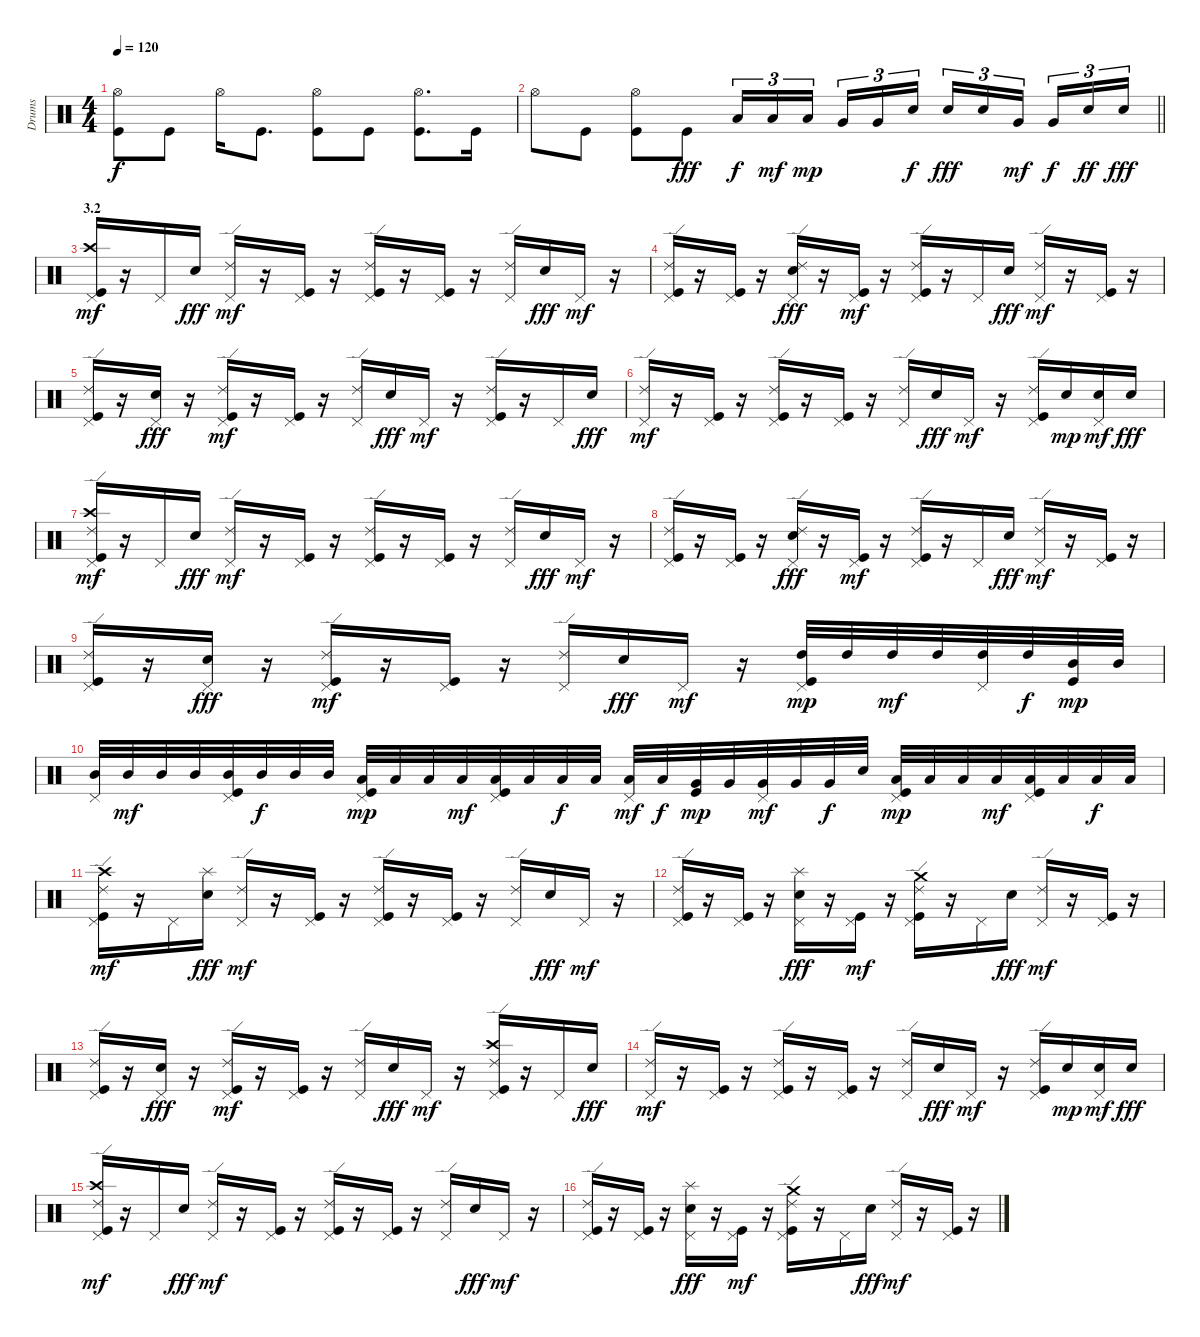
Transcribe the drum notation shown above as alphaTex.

\track ("Drums" "Drums") {instrument percussion}
\staff {score}
\articulation defaults
\ts (4 4)
\tempo 120
\clef neutral
\ks c
("Hi-Hat (open)" "Kick (hit)").8{dy f} "Kick (hit)".8 "Hi-Hat (open)".16 "Kick (hit)".8{d} ("Hi-Hat (open)" "Kick (hit)").8 "Kick (hit)".8 ("Hi-Hat (open)" "Kick (hit)").8{d} "Kick (hit)".16 |
\barLineRight lightlight "Hi-Hat (open)".8 "Kick (hit)".8
("Hi-Hat (open)" "Kick (hit)").8 "Kick (hit)".8{dy fff} "Low Tom (hit)".16{tu (3 2) dy f} "Low Tom (hit)".16{tu (3 2) dy mf} "Low Tom (hit)".16{tu (3 2) dy mp beam splitsecondary} "Very Low Tom (hit)".16{tu (3 2)} "Very Low Tom (hit)".16{tu (3 2)} "Snare (hit) 2".16{tu (3 2) dy f} "Snare (hit) 2".16{tu (3 2) dy fff} "Snare (hit) 2".16{tu (3 2)} "Very Low Tom (hit)".16{tu (3 2) dy mf beam splitsecondary} "Very Low Tom (hit)".16{tu (3 2) dy f} "Snare (hit) 2".16{tu (3 2) dy ff} "Snare (hit) 2".16{tu (3 2) dy fff} |
\section ("" "3.2")
("Crash high (hit)" "Pedal Hi-Hat (hit)" "Kick (hit)").16{dy mf} r.16 "Pedal Hi-Hat (hit)".16 "Snare (hit) 2".16{dy fff} ("Ride (edge) 2" "Pedal Hi-Hat (hit)").16{dy mf} r.16 ("Pedal Hi-Hat (hit)" "Kick (hit)").16 r.16 ("Ride (edge) 2" "Pedal Hi-Hat (hit)" "Kick (hit)").16 r.16 ("Pedal Hi-Hat (hit)" "Kick (hit)").16 r.16 ("Ride (edge) 2" "Pedal Hi-Hat (hit)").16 "Snare (hit) 2".16{dy fff} "Pedal Hi-Hat (hit)".16{dy mf} r.16 |
("Ride (edge) 2" "Pedal Hi-Hat (hit)" "Kick (hit)").16 r.16 ("Pedal Hi-Hat (hit)" "Kick (hit)").16 r.16 ("Ride (edge) 2" "Pedal Hi-Hat (hit)" "Snare (hit) 2").16{dy fff} r.16 ("Pedal Hi-Hat (hit)" "Kick (hit)").16{dy mf} r.16 ("Ride (edge) 2" "Pedal Hi-Hat (hit)" "Kick (hit)").16 r.16 "Pedal Hi-Hat (hit)".16 "Snare (hit) 2".16{dy fff} ("Ride (edge) 2" "Pedal Hi-Hat (hit)").16{dy mf} r.16 ("Pedal Hi-Hat (hit)" "Kick (hit)").16 r.16 |
("Ride (edge) 2" "Pedal Hi-Hat (hit)" "Kick (hit)").16 r.16 ("Pedal Hi-Hat (hit)" "Snare (hit) 2").16{dy fff} r.16 ("Ride (edge) 2" "Pedal Hi-Hat (hit)" "Kick (hit)").16{dy mf} r.16 ("Pedal Hi-Hat (hit)" "Kick (hit)").16 r.16 ("Ride (edge) 2" "Pedal Hi-Hat (hit)").16 "Snare (hit) 2".16{dy fff} "Pedal Hi-Hat (hit)".16{dy mf} r.16 ("Ride (edge) 2" "Pedal Hi-Hat (hit)" "Kick (hit)").16 r.16 "Pedal Hi-Hat (hit)".16 "Snare (hit) 2".16{dy fff} |
("Ride (edge) 2" "Pedal Hi-Hat (hit)").16{dy mf} r.16 ("Pedal Hi-Hat (hit)" "Kick (hit)").16 r.16 ("Ride (edge) 2" "Pedal Hi-Hat (hit)" "Kick (hit)").16 r.16 ("Pedal Hi-Hat (hit)" "Kick (hit)").16 r.16 ("Ride (edge) 2" "Pedal Hi-Hat (hit)").16 "Snare (hit) 2".16{dy fff} "Pedal Hi-Hat (hit)".16{dy mf} r.16 ("Ride (edge) 2" "Pedal Hi-Hat (hit)" "Kick (hit)").16 "Snare (hit) 2".16{dy mp} ("Pedal Hi-Hat (hit)" "Snare (hit) 2").16{dy mf} "Snare (hit) 2".16{dy fff} |
("Crash high (hit)" "Ride (edge) 2" "Pedal Hi-Hat (hit)" "Kick (hit)").16{dy mf} r.16 "Pedal Hi-Hat (hit)".16 "Snare (hit) 2".16{dy fff} ("Ride (edge) 2" "Pedal Hi-Hat (hit)").16{dy mf} r.16 ("Pedal Hi-Hat (hit)" "Kick (hit)").16 r.16 ("Ride (edge) 2" "Pedal Hi-Hat (hit)" "Kick (hit)").16 r.16 ("Pedal Hi-Hat (hit)" "Kick (hit)").16 r.16 ("Ride (edge) 2" "Pedal Hi-Hat (hit)").16 "Snare (hit) 2".16{dy fff} "Pedal Hi-Hat (hit)".16{dy mf} r.16 |
("Ride (edge) 2" "Pedal Hi-Hat (hit)" "Kick (hit)").16 r.16 ("Pedal Hi-Hat (hit)" "Kick (hit)").16 r.16 ("Ride (edge) 2" "Pedal Hi-Hat (hit)" "Snare (hit) 2").16{dy fff} r.16 ("Pedal Hi-Hat (hit)" "Kick (hit)").16{dy mf} r.16 ("Ride (edge) 2" "Pedal Hi-Hat (hit)" "Kick (hit)").16 r.16 "Pedal Hi-Hat (hit)".16 "Snare (hit) 2".16{dy fff} ("Ride (edge) 2" "Pedal Hi-Hat (hit)").16{dy mf} r.16 ("Pedal Hi-Hat (hit)" "Kick (hit)").16 r.16 |
("Ride (edge) 2" "Pedal Hi-Hat (hit)" "Kick (hit)").16 r.16 ("Pedal Hi-Hat (hit)" "Snare (hit) 2").16{dy fff} r.16 ("Ride (edge) 2" "Pedal Hi-Hat (hit)" "Kick (hit)").16{dy mf} r.16 ("Pedal Hi-Hat (hit)" "Kick (hit)").16 r.16 ("Ride (edge) 2" "Pedal Hi-Hat (hit)").16 "Snare (hit) 2".16{dy fff} "Pedal Hi-Hat (hit)".16{dy mf} r.16 ("Pedal Hi-Hat (hit)" "High Tom (hit)" "Kick (hit)").32{dy mp} "High Tom (hit)".32 "High Tom (hit)".32{dy mf} "High Tom (hit)".32 ("Pedal Hi-Hat (hit)" "High Tom (hit)").32 "High Tom (hit)".32{dy f} ("Mid Tom (hit)" "Kick (hit)").32{dy mp} "Mid Tom (hit)".32 |
("Pedal Hi-Hat (hit)" "Mid Tom (hit)").32 "Mid Tom (hit)".32{dy mf} "Mid Tom (hit)".32 "Mid Tom (hit)".32 ("Pedal Hi-Hat (hit)" "Mid Tom (hit)" "Kick (hit)").32 "Mid Tom (hit)".32{dy f} "Mid Tom (hit)".32 "Mid Tom (hit)".32 ("Pedal Hi-Hat (hit)" "Low Tom (hit)" "Kick (hit)").32{dy mp} "Low Tom (hit)".32 "Low Tom (hit)".32 "Low Tom (hit)".32{dy mf} ("Pedal Hi-Hat (hit)" "Low Tom (hit)" "Kick (hit)").32 "Low Tom (hit)".32 "Low Tom (hit)".32{dy f} "Low Tom (hit)".32 ("Pedal Hi-Hat (hit)" "Low Tom (hit)").32{dy mf} "Low Tom (hit)".32{dy f} ("Very Low Tom (hit)" "Kick (hit)").32{dy mp} "Very Low Tom (hit)".32 ("Pedal Hi-Hat (hit)" "Very Low Tom (hit)").32{dy mf} "Very Low Tom (hit)".32 "Very Low Tom (hit)".32{dy f} "Metronome (bell)".32 ("Pedal Hi-Hat (hit)" "Low Floor Tom (hit)" "Kick (hit)").32{dy mp} "Low Floor Tom (hit)".32 "Low Floor Tom (hit)".32 "Low Floor Tom (hit)".32{dy mf} ("Pedal Hi-Hat (hit)" "Low Floor Tom (hit)" "Kick (hit)").32 "Low Floor Tom (hit)".32 "Low Floor Tom (hit)".32{dy f} "Low Floor Tom (hit)".32 |
("Crash high (hit)" "Ride (edge) 2" "Pedal Hi-Hat (hit)" "Kick (hit)").16{dy mf} r.16 "Pedal Hi-Hat (hit)".16 ("Splash (hit)" "Snare (hit) 2").16{dy fff} ("Ride (edge) 2" "Pedal Hi-Hat (hit)").16{dy mf} r.16 ("Pedal Hi-Hat (hit)" "Kick (hit)").16 r.16 ("Ride (edge) 2" "Pedal Hi-Hat (hit)" "Kick (hit)").16 r.16 ("Pedal Hi-Hat (hit)" "Kick (hit)").16 r.16 ("Ride (edge) 2" "Pedal Hi-Hat (hit)").16 "Snare (hit) 2".16{dy fff} "Pedal Hi-Hat (hit)".16{dy mf} r.16 |
("Ride (edge) 2" "Pedal Hi-Hat (hit)" "Kick (hit)").16 r.16 ("Pedal Hi-Hat (hit)" "Kick (hit)").16 r.16 ("Splash (hit)" "Pedal Hi-Hat (hit)" "Snare (hit) 2").16{dy fff} r.16 ("Pedal Hi-Hat (hit)" "Kick (hit)").16{dy mf} r.16 ("Crash medium (hit)" "Ride (edge) 2" "Pedal Hi-Hat (hit)" "Kick (hit)").16 r.16 "Pedal Hi-Hat (hit)".16 "Snare (hit) 2".16{dy fff} ("Ride (edge) 2" "Pedal Hi-Hat (hit)").16{dy mf} r.16 ("Pedal Hi-Hat (hit)" "Kick (hit)").16 r.16 |
("Ride (edge) 2" "Pedal Hi-Hat (hit)" "Kick (hit)").16 r.16 ("Pedal Hi-Hat (hit)" "Snare (hit) 2").16{dy fff} r.16 ("Ride (edge) 2" "Pedal Hi-Hat (hit)" "Kick (hit)").16{dy mf} r.16 ("Pedal Hi-Hat (hit)" "Kick (hit)").16 r.16 ("Ride (edge) 2" "Pedal Hi-Hat (hit)").16 "Snare (hit) 2".16{dy fff} "Pedal Hi-Hat (hit)".16{dy mf} r.16 ("Crash high (hit)" "Ride (edge) 2" "Pedal Hi-Hat (hit)" "Kick (hit)").16 r.16 "Pedal Hi-Hat (hit)".16 "Snare (hit) 2".16{dy fff} |
("Ride (edge) 2" "Pedal Hi-Hat (hit)").16{dy mf} r.16 ("Pedal Hi-Hat (hit)" "Kick (hit)").16 r.16 ("Ride (edge) 2" "Pedal Hi-Hat (hit)" "Kick (hit)").16 r.16 ("Pedal Hi-Hat (hit)" "Kick (hit)").16 r.16 ("Ride (edge) 2" "Pedal Hi-Hat (hit)").16 "Snare (hit) 2".16{dy fff} "Pedal Hi-Hat (hit)".16{dy mf} r.16 ("Ride (edge) 2" "Pedal Hi-Hat (hit)" "Kick (hit)").16 "Snare (hit) 2".16{dy mp} ("Pedal Hi-Hat (hit)" "Snare (hit) 2").16{dy mf} "Snare (hit) 2".16{dy fff} |
("Crash high (hit)" "Ride (edge) 2" "Pedal Hi-Hat (hit)" "Kick (hit)").16{dy mf} r.16 "Pedal Hi-Hat (hit)".16 "Snare (hit) 2".16{dy fff} ("Ride (edge) 2" "Pedal Hi-Hat (hit)").16{dy mf} r.16 ("Pedal Hi-Hat (hit)" "Kick (hit)").16 r.16 ("Ride (edge) 2" "Pedal Hi-Hat (hit)" "Kick (hit)").16 r.16 ("Pedal Hi-Hat (hit)" "Kick (hit)").16 r.16 ("Ride (edge) 2" "Pedal Hi-Hat (hit)").16 "Snare (hit) 2".16{dy fff} "Pedal Hi-Hat (hit)".16{dy mf} r.16 |
("Ride (edge) 2" "Pedal Hi-Hat (hit)" "Kick (hit)").16 r.16 ("Pedal Hi-Hat (hit)" "Kick (hit)").16 r.16 ("Splash (hit)" "Pedal Hi-Hat (hit)" "Snare (hit) 2").16{dy fff} r.16 ("Pedal Hi-Hat (hit)" "Kick (hit)").16{dy mf} r.16 ("Crash medium (hit)" "Ride (edge) 2" "Pedal Hi-Hat (hit)" "Kick (hit)").16 r.16 "Pedal Hi-Hat (hit)".16 "Snare (hit) 2".16{dy fff} ("Ride (edge) 2" "Pedal Hi-Hat (hit)").16{dy mf} r.16 ("Pedal Hi-Hat (hit)" "Kick (hit)").16 r.16
